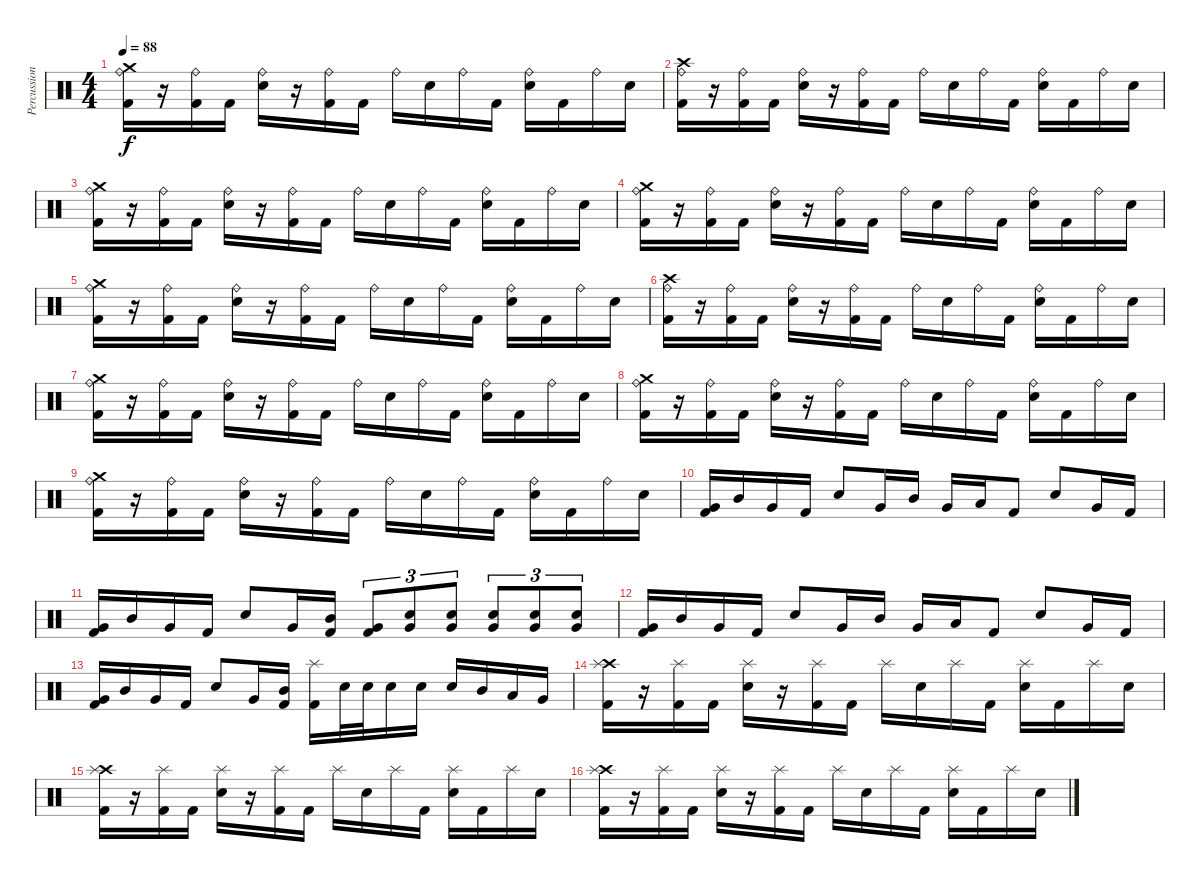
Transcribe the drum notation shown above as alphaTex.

\track ("Percussion" "Percussion") {instrument percussion}
\staff {score}
\articulation defaults
\ts (4 4)
\tempo 88
\clef neutral
\ks c
("Crash medium (hit)" "Ride (bell)" "Kick (hit) 2").16{dy f} r.16 ("Ride (bell)" "Kick (hit) 2").16 "Kick (hit) 2".16 ("Ride (bell)" "Electric Snare (hit)").16 r.16 ("Ride (bell)" "Kick (hit) 2").16 "Kick (hit) 2".16 "Ride (bell)".16 "Electric Snare (hit)".16 "Ride (bell)".16 "Kick (hit) 2".16 ("Ride (bell)" "Electric Snare (hit)").16 "Kick (hit) 2".16 "Ride (bell)".16 "Electric Snare (hit)".16 |
("Crash high (hit)" "Ride (bell)" "Kick (hit) 2").16 r.16 ("Ride (bell)" "Kick (hit) 2").16 "Kick (hit) 2".16 ("Ride (bell)" "Electric Snare (hit)").16 r.16 ("Ride (bell)" "Kick (hit) 2").16 "Kick (hit) 2".16 "Ride (bell)".16 "Electric Snare (hit)".16 "Ride (bell)".16 "Kick (hit) 2".16 ("Ride (bell)" "Electric Snare (hit)").16 "Kick (hit) 2".16 "Ride (bell)".16 "Electric Snare (hit)".16 |
("Crash medium (hit)" "Ride (bell)" "Kick (hit) 2").16 r.16 ("Ride (bell)" "Kick (hit) 2").16 "Kick (hit) 2".16 ("Ride (bell)" "Electric Snare (hit)").16 r.16 ("Ride (bell)" "Kick (hit) 2").16 "Kick (hit) 2".16 "Ride (bell)".16 "Electric Snare (hit)".16 "Ride (bell)".16 "Kick (hit) 2".16 ("Ride (bell)" "Electric Snare (hit)").16 "Kick (hit) 2".16 "Ride (bell)".16 "Electric Snare (hit)".16 |
("Crash medium (hit)" "Ride (bell)" "Kick (hit) 2").16 r.16 ("Ride (bell)" "Kick (hit) 2").16 "Kick (hit) 2".16 ("Ride (bell)" "Electric Snare (hit)").16 r.16 ("Ride (bell)" "Kick (hit) 2").16 "Kick (hit) 2".16 "Ride (bell)".16 "Electric Snare (hit)".16 "Ride (bell)".16 "Kick (hit) 2".16 ("Ride (bell)" "Electric Snare (hit)").16 "Kick (hit) 2".16 "Ride (bell)".16 "Electric Snare (hit)".16 |
("Crash medium (hit)" "Ride (bell)" "Kick (hit) 2").16 r.16 ("Ride (bell)" "Kick (hit) 2").16 "Kick (hit) 2".16 ("Ride (bell)" "Electric Snare (hit)").16 r.16 ("Ride (bell)" "Kick (hit) 2").16 "Kick (hit) 2".16 "Ride (bell)".16 "Electric Snare (hit)".16 "Ride (bell)".16 "Kick (hit) 2".16 ("Ride (bell)" "Electric Snare (hit)").16 "Kick (hit) 2".16 "Ride (bell)".16 "Electric Snare (hit)".16 |
("Crash high (hit)" "Ride (bell)" "Kick (hit) 2").16 r.16 ("Ride (bell)" "Kick (hit) 2").16 "Kick (hit) 2".16 ("Ride (bell)" "Electric Snare (hit)").16 r.16 ("Ride (bell)" "Kick (hit) 2").16 "Kick (hit) 2".16 "Ride (bell)".16 "Electric Snare (hit)".16 "Ride (bell)".16 "Kick (hit) 2".16 ("Ride (bell)" "Electric Snare (hit)").16 "Kick (hit) 2".16 "Ride (bell)".16 "Electric Snare (hit)".16 |
("Crash medium (hit)" "Ride (bell)" "Kick (hit) 2").16 r.16 ("Ride (bell)" "Kick (hit) 2").16 "Kick (hit) 2".16 ("Ride (bell)" "Electric Snare (hit)").16 r.16 ("Ride (bell)" "Kick (hit) 2").16 "Kick (hit) 2".16 "Ride (bell)".16 "Electric Snare (hit)".16 "Ride (bell)".16 "Kick (hit) 2".16 ("Ride (bell)" "Electric Snare (hit)").16 "Kick (hit) 2".16 "Ride (bell)".16 "Electric Snare (hit)".16 |
("Crash medium (hit)" "Ride (bell)" "Kick (hit) 2").16 r.16 ("Ride (bell)" "Kick (hit) 2").16 "Kick (hit) 2".16 ("Ride (bell)" "Electric Snare (hit)").16 r.16 ("Ride (bell)" "Kick (hit) 2").16 "Kick (hit) 2".16 "Ride (bell)".16 "Electric Snare (hit)".16 "Ride (bell)".16 "Kick (hit) 2".16 ("Ride (bell)" "Electric Snare (hit)").16 "Kick (hit) 2".16 "Ride (bell)".16 "Electric Snare (hit)".16 |
("Crash medium (hit)" "Ride (bell)" "Kick (hit) 2").16 r.16 ("Ride (bell)" "Kick (hit) 2").16 "Kick (hit) 2".16 ("Ride (bell)" "Electric Snare (hit)").16 r.16 ("Ride (bell)" "Kick (hit) 2").16 "Kick (hit) 2".16 "Ride (bell)".16 "Electric Snare (hit)".16 "Ride (bell)".16 "Kick (hit) 2".16 ("Ride (bell)" "Electric Snare (hit)").16 "Kick (hit) 2".16 "Ride (bell)".16 "Electric Snare (hit)".16 |
("Very Low Tom (hit)" "Kick (hit) 2").16 "Mid Tom (hit)".16 "Very Low Tom (hit)".16 "Kick (hit) 2".16 "Electric Snare (hit)".8 "Very Low Tom (hit)".16 "Mid Tom (hit)".16 "Very Low Tom (hit)".16 "Low Tom (hit)".16 "Kick (hit) 2".8 "Electric Snare (hit)".8 "Very Low Tom (hit)".16 "Kick (hit) 2".16 |
("Very Low Tom (hit)" "Kick (hit) 2").16 "Mid Tom (hit)".16 "Very Low Tom (hit)".16 "Kick (hit) 2".16 "Electric Snare (hit)".8 "Very Low Tom (hit)".16 ("Mid Tom (hit)" "Kick (hit) 2").16 ("Very Low Tom (hit)" "Kick (hit) 2").8{tu (3 2)} ("Electric Snare (hit)" "Very Low Tom (hit)").8{tu (3 2)} ("Electric Snare (hit)" "Very Low Tom (hit)").8{tu (3 2)} ("Electric Snare (hit)" "Very Low Tom (hit)").8{tu (3 2)} ("Electric Snare (hit)" "Very Low Tom (hit)").8{tu (3 2)} ("Electric Snare (hit)" "Very Low Tom (hit)").8{tu (3 2)} |
("Very Low Tom (hit)" "Kick (hit) 2").16 "Mid Tom (hit)".16 "Very Low Tom (hit)".16 "Kick (hit) 2".16 "Electric Snare (hit)".8 "Very Low Tom (hit)".16 "Mid Tom (hit)".16 "Very Low Tom (hit)".16 "Low Tom (hit)".16 "Kick (hit) 2".8 "Electric Snare (hit)".8 "Very Low Tom (hit)".16 "Kick (hit) 2".16 |
("Very Low Tom (hit)" "Kick (hit) 2").16 "Mid Tom (hit)".16 "Very Low Tom (hit)".16 "Kick (hit) 2".16 "Electric Snare (hit)".8 "Very Low Tom (hit)".16 ("Mid Tom (hit)" "Kick (hit) 2").16 ("Splash (hit)" "Kick (hit) 2").16 "Electric Snare (hit)".32 "Electric Snare (hit)".32 "Electric Snare (hit)".16 "Electric Snare (hit)".16 "Electric Snare (hit)".16 "Mid Tom (hit)".16 "Low Tom (hit)".16 "Very Low Tom (hit)".16 |
("Crash high (hit)" "Splash (hit)" "Kick (hit) 2").16 r.16 ("Splash (hit)" "Kick (hit) 2").16 "Kick (hit) 2".16 ("Splash (hit)" "Electric Snare (hit)").16 r.16 ("Splash (hit)" "Kick (hit) 2").16 "Kick (hit) 2".16 "Splash (hit)".16 "Electric Snare (hit)".16 "Splash (hit)".16 "Kick (hit) 2".16 ("Splash (hit)" "Electric Snare (hit)").16 "Kick (hit) 2".16 "Splash (hit)".16 "Electric Snare (hit)".16 |
("Crash high (hit)" "Splash (hit)" "Kick (hit) 2").16 r.16 ("Splash (hit)" "Kick (hit) 2").16 "Kick (hit) 2".16 ("Splash (hit)" "Electric Snare (hit)").16 r.16 ("Splash (hit)" "Kick (hit) 2").16 "Kick (hit) 2".16 "Splash (hit)".16 "Electric Snare (hit)".16 "Splash (hit)".16 "Kick (hit) 2".16 ("Splash (hit)" "Electric Snare (hit)").16 "Kick (hit) 2".16 "Splash (hit)".16 "Electric Snare (hit)".16 |
("Crash high (hit)" "Splash (hit)" "Kick (hit) 2").16 r.16 ("Splash (hit)" "Kick (hit) 2").16 "Kick (hit) 2".16 ("Splash (hit)" "Electric Snare (hit)").16 r.16 ("Splash (hit)" "Kick (hit) 2").16 "Kick (hit) 2".16 "Splash (hit)".16 "Electric Snare (hit)".16 "Splash (hit)".16 "Kick (hit) 2".16 ("Splash (hit)" "Electric Snare (hit)").16 "Kick (hit) 2".16 "Splash (hit)".16 "Electric Snare (hit)".16
